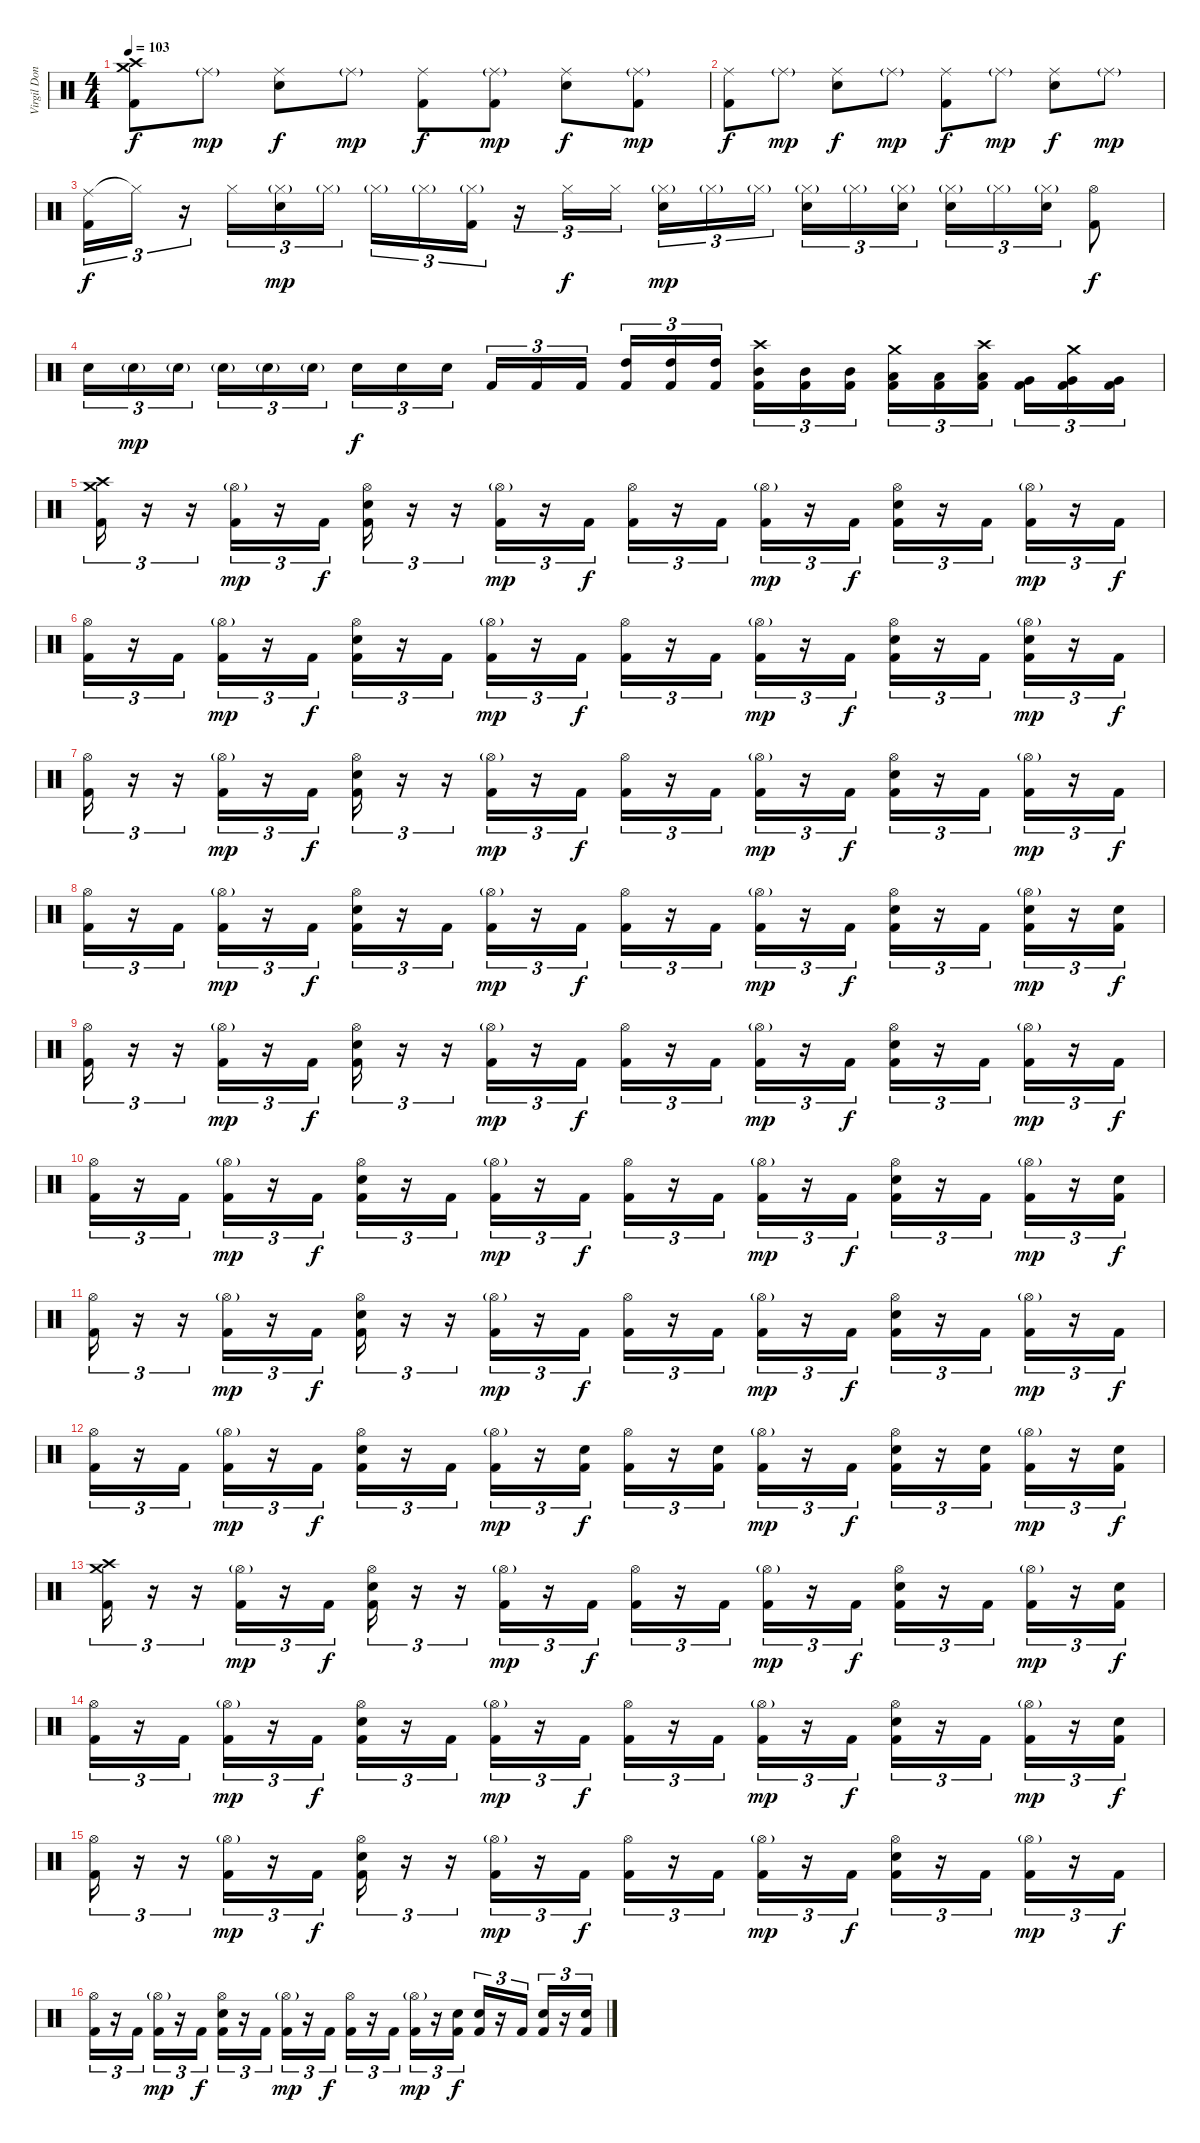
\track ("Virgil Donati" "Virgil Don") {instrument percussion}
\staff {score}
\articulation defaults
\ts (4 4)
\tempo 103
\clef neutral
\ks c
("Crash medium (hit)" "Crash high (hit)" "Kick (hit) 2").8{dy f} "Ride (middle)"{g}.8{dy mp} ("Ride (middle)" "Snare (hit) 2").8{dy f} "Ride (middle)"{g}.8{dy mp} ("Ride (middle)" "Kick (hit) 2").8{dy f} ("Ride (middle)"{g} "Kick (hit) 2").8{dy mp} ("Ride (middle)" "Snare (hit) 2").8{dy f} ("Ride (middle)"{g} "Kick (hit) 2").8{dy mp} |
("Ride (middle)" "Kick (hit) 2").8{dy f} "Ride (middle)"{g}.8{dy mp} ("Ride (middle)" "Snare (hit) 2").8{dy f} "Ride (middle)"{g}.8{dy mp} ("Ride (middle)" "Kick (hit) 2").8{dy f} "Ride (middle)"{g}.8{dy mp} ("Ride (middle)" "Snare (hit) 2").8{dy f} "Ride (middle)"{g}.8{dy mp} |
("Ride (middle)" "Kick (hit) 2").16{tu (3 2) dy f} "Hi-Hat (closed)"{t}.16{tu (3 2)} r.16{tu (3 2)} "Hi-Hat (closed)".16{tu (3 2)} ("Hi-Hat (closed)"{g} "Snare (hit) 2").16{tu (3 2) dy mp} "Hi-Hat (closed)"{g}.16{tu (3 2)} "Hi-Hat (closed)"{g}.16{tu (3 2)} "Hi-Hat (closed)"{g}.16{tu (3 2)} ("Hi-Hat (closed)"{g} "Kick (hit) 2").16{tu (3 2)} r.16{tu (3 2)} "Hi-Hat (closed)".16{tu (3 2) dy f} "Hi-Hat (closed)".16{tu (3 2)} ("Hi-Hat (closed)"{g} "Snare (hit) 2").16{tu (3 2) dy mp} "Hi-Hat (closed)"{g}.16{tu (3 2)} "Hi-Hat (closed)"{g}.16{tu (3 2)} ("Hi-Hat (closed)"{g} "Snare (hit) 2").16{tu (3 2)} "Hi-Hat (closed)"{g}.16{tu (3 2)} ("Hi-Hat (closed)"{g} "Snare (hit) 2").16{tu (3 2)} ("Hi-Hat (closed)"{g} "Snare (hit) 2").16{tu (3 2)} "Hi-Hat (closed)"{g}.16{tu (3 2)} ("Hi-Hat (closed)"{g} "Snare (hit) 2").16{tu (3 2)} ("Hi-Hat (open)" "Kick (hit) 2").8{dy f} |
"Snare (hit) 2".16{tu (3 2)} "Snare (hit) 2"{g}.16{tu (3 2) dy mp} "Snare (hit) 2"{g}.16{tu (3 2)} "Snare (hit) 2"{g}.16{tu (3 2)} "Snare (hit) 2"{g}.16{tu (3 2)} "Snare (hit) 2"{g}.16{tu (3 2)} "Snare (hit) 2".16{tu (3 2) dy f} "Snare (hit) 2".16{tu (3 2)} "Snare (hit) 2".16{tu (3 2)} "Kick (hit) 2".16{tu (3 2)} "Kick (hit) 2".16{tu (3 2)} "Kick (hit) 2".16{tu (3 2)} ("High Tom (hit)" "Kick (hit) 2").16{tu (3 2)} ("High Tom (hit)" "Kick (hit) 2").16{tu (3 2)} ("High Tom (hit)" "Kick (hit) 2").16{tu (3 2)} ("Crash high (hit)" "Mid Tom (hit)" "Kick (hit) 2").16{tu (3 2)} ("Mid Tom (hit)" "Kick (hit) 2").16{tu (3 2)} ("Mid Tom (hit)" "Kick (hit) 2").16{tu (3 2)} ("Crash medium (hit)" "Low Tom (hit)" "Kick (hit) 2").16{tu (3 2)} ("Low Tom (hit)" "Kick (hit) 2").16{tu (3 2)} ("Crash high (hit)" "Low Tom (hit)" "Kick (hit) 2").16{tu (3 2)} ("Very Low Tom (hit)" "Kick (hit) 2").16{tu (3 2)} ("Crash medium (hit)" "Very Low Tom (hit)" "Kick (hit) 2").16{tu (3 2)} ("Very Low Tom (hit)" "Kick (hit) 2").16{tu (3 2)} |
("Crash medium (hit)" "Crash high (hit)" "Kick (hit) 2").16{tu (3 2)} r.16{tu (3 2)} r.16{tu (3 2)} ("Hi-Hat (open)"{g} "Kick (hit) 2").16{tu (3 2) dy mp} r.16{tu (3 2)} "Kick (hit) 2".16{tu (3 2) dy f} ("Hi-Hat (open)" "Snare (hit) 2" "Kick (hit) 2").16{tu (3 2)} r.16{tu (3 2)} r.16{tu (3 2)} ("Hi-Hat (open)"{g} "Kick (hit) 2").16{tu (3 2) dy mp} r.16{tu (3 2)} "Kick (hit) 2".16{tu (3 2) dy f} ("Hi-Hat (open)" "Kick (hit) 2").16{tu (3 2)} r.16{tu (3 2)} "Kick (hit) 2".16{tu (3 2)} ("Hi-Hat (open)"{g} "Kick (hit) 2").16{tu (3 2) dy mp} r.16{tu (3 2)} "Kick (hit) 2".16{tu (3 2) dy f} ("Hi-Hat (open)" "Snare (hit) 2" "Kick (hit) 2").16{tu (3 2)} r.16{tu (3 2)} "Kick (hit) 2".16{tu (3 2)} ("Hi-Hat (open)"{g} "Kick (hit) 2").16{tu (3 2) dy mp} r.16{tu (3 2)} "Kick (hit) 2".16{tu (3 2) dy f} |
("Hi-Hat (open)" "Kick (hit) 2").16{tu (3 2)} r.16{tu (3 2)} "Kick (hit) 2".16{tu (3 2)} ("Hi-Hat (open)"{g} "Kick (hit) 2").16{tu (3 2) dy mp} r.16{tu (3 2)} "Kick (hit) 2".16{tu (3 2) dy f} ("Hi-Hat (open)" "Snare (hit) 2" "Kick (hit) 2").16{tu (3 2)} r.16{tu (3 2)} "Kick (hit) 2".16{tu (3 2)} ("Hi-Hat (open)"{g} "Kick (hit) 2").16{tu (3 2) dy mp} r.16{tu (3 2)} "Kick (hit) 2".16{tu (3 2) dy f} ("Hi-Hat (open)" "Kick (hit) 2").16{tu (3 2)} r.16{tu (3 2)} "Kick (hit) 2".16{tu (3 2)} ("Hi-Hat (open)"{g} "Kick (hit) 2").16{tu (3 2) dy mp} r.16{tu (3 2)} "Kick (hit) 2".16{tu (3 2) dy f} ("Hi-Hat (open)" "Snare (hit) 2" "Kick (hit) 2").16{tu (3 2)} r.16{tu (3 2)} "Kick (hit) 2".16{tu (3 2)} ("Hi-Hat (open)"{g} "Snare (hit) 2" "Kick (hit) 2").16{tu (3 2) dy mp} r.16{tu (3 2)} "Kick (hit) 2".16{tu (3 2) dy f} |
("Hi-Hat (open)" "Kick (hit) 2").16{tu (3 2)} r.16{tu (3 2)} r.16{tu (3 2)} ("Hi-Hat (open)"{g} "Kick (hit) 2").16{tu (3 2) dy mp} r.16{tu (3 2)} "Kick (hit) 2".16{tu (3 2) dy f} ("Hi-Hat (open)" "Snare (hit) 2" "Kick (hit) 2").16{tu (3 2)} r.16{tu (3 2)} r.16{tu (3 2)} ("Hi-Hat (open)"{g} "Kick (hit) 2").16{tu (3 2) dy mp} r.16{tu (3 2)} "Kick (hit) 2".16{tu (3 2) dy f} ("Hi-Hat (open)" "Kick (hit) 2").16{tu (3 2)} r.16{tu (3 2)} "Kick (hit) 2".16{tu (3 2)} ("Hi-Hat (open)"{g} "Kick (hit) 2").16{tu (3 2) dy mp} r.16{tu (3 2)} "Kick (hit) 2".16{tu (3 2) dy f} ("Hi-Hat (open)" "Snare (hit) 2" "Kick (hit) 2").16{tu (3 2)} r.16{tu (3 2)} "Kick (hit) 2".16{tu (3 2)} ("Hi-Hat (open)"{g} "Kick (hit) 2").16{tu (3 2) dy mp} r.16{tu (3 2)} "Kick (hit) 2".16{tu (3 2) dy f} |
("Hi-Hat (open)" "Kick (hit) 2").16{tu (3 2)} r.16{tu (3 2)} "Kick (hit) 2".16{tu (3 2)} ("Hi-Hat (open)"{g} "Kick (hit) 2").16{tu (3 2) dy mp} r.16{tu (3 2)} "Kick (hit) 2".16{tu (3 2) dy f} ("Hi-Hat (open)" "Snare (hit) 2" "Kick (hit) 2").16{tu (3 2)} r.16{tu (3 2)} "Kick (hit) 2".16{tu (3 2)} ("Hi-Hat (open)"{g} "Kick (hit) 2").16{tu (3 2) dy mp} r.16{tu (3 2)} "Kick (hit) 2".16{tu (3 2) dy f} ("Hi-Hat (open)" "Kick (hit) 2").16{tu (3 2)} r.16{tu (3 2)} "Kick (hit) 2".16{tu (3 2)} ("Hi-Hat (open)"{g} "Kick (hit) 2").16{tu (3 2) dy mp} r.16{tu (3 2)} "Kick (hit) 2".16{tu (3 2) dy f} ("Hi-Hat (open)" "Snare (hit) 2" "Kick (hit) 2").16{tu (3 2)} r.16{tu (3 2)} "Kick (hit) 2".16{tu (3 2)} ("Hi-Hat (open)"{g} "Snare (hit) 2" "Kick (hit) 2").16{tu (3 2) dy mp} r.16{tu (3 2)} ("Snare (hit) 2" "Kick (hit) 2").16{tu (3 2) dy f} |
("Hi-Hat (open)" "Kick (hit) 2").16{tu (3 2)} r.16{tu (3 2)} r.16{tu (3 2)} ("Hi-Hat (open)"{g} "Kick (hit) 2").16{tu (3 2) dy mp} r.16{tu (3 2)} "Kick (hit) 2".16{tu (3 2) dy f} ("Hi-Hat (open)" "Snare (hit) 2" "Kick (hit) 2").16{tu (3 2)} r.16{tu (3 2)} r.16{tu (3 2)} ("Hi-Hat (open)"{g} "Kick (hit) 2").16{tu (3 2) dy mp} r.16{tu (3 2)} "Kick (hit) 2".16{tu (3 2) dy f} ("Hi-Hat (open)" "Kick (hit) 2").16{tu (3 2)} r.16{tu (3 2)} "Kick (hit) 2".16{tu (3 2)} ("Hi-Hat (open)"{g} "Kick (hit) 2").16{tu (3 2) dy mp} r.16{tu (3 2)} "Kick (hit) 2".16{tu (3 2) dy f} ("Hi-Hat (open)" "Snare (hit) 2" "Kick (hit) 2").16{tu (3 2)} r.16{tu (3 2)} "Kick (hit) 2".16{tu (3 2)} ("Hi-Hat (open)"{g} "Kick (hit) 2").16{tu (3 2) dy mp} r.16{tu (3 2)} "Kick (hit) 2".16{tu (3 2) dy f} |
("Hi-Hat (open)" "Kick (hit) 2").16{tu (3 2)} r.16{tu (3 2)} "Kick (hit) 2".16{tu (3 2)} ("Hi-Hat (open)"{g} "Kick (hit) 2").16{tu (3 2) dy mp} r.16{tu (3 2)} "Kick (hit) 2".16{tu (3 2) dy f} ("Hi-Hat (open)" "Snare (hit) 2" "Kick (hit) 2").16{tu (3 2)} r.16{tu (3 2)} "Kick (hit) 2".16{tu (3 2)} ("Hi-Hat (open)"{g} "Kick (hit) 2").16{tu (3 2) dy mp} r.16{tu (3 2)} "Kick (hit) 2".16{tu (3 2) dy f} ("Hi-Hat (open)" "Kick (hit) 2").16{tu (3 2)} r.16{tu (3 2)} "Kick (hit) 2".16{tu (3 2)} ("Hi-Hat (open)"{g} "Kick (hit) 2").16{tu (3 2) dy mp} r.16{tu (3 2)} "Kick (hit) 2".16{tu (3 2) dy f} ("Hi-Hat (open)" "Snare (hit) 2" "Kick (hit) 2").16{tu (3 2)} r.16{tu (3 2)} "Kick (hit) 2".16{tu (3 2)} ("Hi-Hat (open)"{g} "Kick (hit) 2").16{tu (3 2) dy mp} r.16{tu (3 2)} ("Snare (hit) 2" "Kick (hit) 2").16{tu (3 2) dy f} |
("Hi-Hat (open)" "Kick (hit) 2").16{tu (3 2)} r.16{tu (3 2)} r.16{tu (3 2)} ("Hi-Hat (open)"{g} "Kick (hit) 2").16{tu (3 2) dy mp} r.16{tu (3 2)} "Kick (hit) 2".16{tu (3 2) dy f} ("Hi-Hat (open)" "Snare (hit) 2" "Kick (hit) 2").16{tu (3 2)} r.16{tu (3 2)} r.16{tu (3 2)} ("Hi-Hat (open)"{g} "Kick (hit) 2").16{tu (3 2) dy mp} r.16{tu (3 2)} "Kick (hit) 2".16{tu (3 2) dy f} ("Hi-Hat (open)" "Kick (hit) 2").16{tu (3 2)} r.16{tu (3 2)} "Kick (hit) 2".16{tu (3 2)} ("Hi-Hat (open)"{g} "Kick (hit) 2").16{tu (3 2) dy mp} r.16{tu (3 2)} "Kick (hit) 2".16{tu (3 2) dy f} ("Hi-Hat (open)" "Snare (hit) 2" "Kick (hit) 2").16{tu (3 2)} r.16{tu (3 2)} "Kick (hit) 2".16{tu (3 2)} ("Hi-Hat (open)"{g} "Kick (hit) 2").16{tu (3 2) dy mp} r.16{tu (3 2)} "Kick (hit) 2".16{tu (3 2) dy f} |
("Hi-Hat (open)" "Kick (hit) 2").16{tu (3 2)} r.16{tu (3 2)} "Kick (hit) 2".16{tu (3 2)} ("Hi-Hat (open)"{g} "Kick (hit) 2").16{tu (3 2) dy mp} r.16{tu (3 2)} "Kick (hit) 2".16{tu (3 2) dy f} ("Hi-Hat (open)" "Snare (hit) 2" "Kick (hit) 2").16{tu (3 2)} r.16{tu (3 2)} "Kick (hit) 2".16{tu (3 2)} ("Hi-Hat (open)"{g} "Kick (hit) 2").16{tu (3 2) dy mp} r.16{tu (3 2)} ("Snare (hit) 2" "Kick (hit) 2").16{tu (3 2) dy f} ("Hi-Hat (open)" "Kick (hit) 2").16{tu (3 2)} r.16{tu (3 2)} ("Snare (hit) 2" "Kick (hit) 2").16{tu (3 2)} ("Hi-Hat (open)"{g} "Kick (hit) 2").16{tu (3 2) dy mp} r.16{tu (3 2)} "Kick (hit) 2".16{tu (3 2) dy f} ("Hi-Hat (open)" "Snare (hit) 2" "Kick (hit) 2").16{tu (3 2)} r.16{tu (3 2)} ("Snare (hit) 2" "Kick (hit) 2").16{tu (3 2)} ("Hi-Hat (open)"{g} "Kick (hit) 2").16{tu (3 2) dy mp} r.16{tu (3 2)} ("Snare (hit) 2" "Kick (hit) 2").16{tu (3 2) dy f} |
("Crash medium (hit)" "Crash high (hit)" "Kick (hit) 2").16{tu (3 2)} r.16{tu (3 2)} r.16{tu (3 2)} ("Hi-Hat (open)"{g} "Kick (hit) 2").16{tu (3 2) dy mp} r.16{tu (3 2)} "Kick (hit) 2".16{tu (3 2) dy f} ("Hi-Hat (open)" "Snare (hit) 2" "Kick (hit) 2").16{tu (3 2)} r.16{tu (3 2)} r.16{tu (3 2)} ("Hi-Hat (open)"{g} "Kick (hit) 2").16{tu (3 2) dy mp} r.16{tu (3 2)} "Kick (hit) 2".16{tu (3 2) dy f} ("Hi-Hat (open)" "Kick (hit) 2").16{tu (3 2)} r.16{tu (3 2)} "Kick (hit) 2".16{tu (3 2)} ("Hi-Hat (open)"{g} "Kick (hit) 2").16{tu (3 2) dy mp} r.16{tu (3 2)} "Kick (hit) 2".16{tu (3 2) dy f} ("Hi-Hat (open)" "Snare (hit) 2" "Kick (hit) 2").16{tu (3 2)} r.16{tu (3 2)} "Kick (hit) 2".16{tu (3 2)} ("Hi-Hat (open)"{g} "Kick (hit) 2").16{tu (3 2) dy mp} r.16{tu (3 2)} ("Snare (hit) 2" "Kick (hit) 2").16{tu (3 2) dy f} |
("Hi-Hat (open)" "Kick (hit) 2").16{tu (3 2)} r.16{tu (3 2)} "Kick (hit) 2".16{tu (3 2)} ("Hi-Hat (open)"{g} "Kick (hit) 2").16{tu (3 2) dy mp} r.16{tu (3 2)} "Kick (hit) 2".16{tu (3 2) dy f} ("Hi-Hat (open)" "Snare (hit) 2" "Kick (hit) 2").16{tu (3 2)} r.16{tu (3 2)} "Kick (hit) 2".16{tu (3 2)} ("Hi-Hat (open)"{g} "Kick (hit) 2").16{tu (3 2) dy mp} r.16{tu (3 2)} "Kick (hit) 2".16{tu (3 2) dy f} ("Hi-Hat (open)" "Kick (hit) 2").16{tu (3 2)} r.16{tu (3 2)} "Kick (hit) 2".16{tu (3 2)} ("Hi-Hat (open)"{g} "Kick (hit) 2").16{tu (3 2) dy mp} r.16{tu (3 2)} "Kick (hit) 2".16{tu (3 2) dy f} ("Hi-Hat (open)" "Snare (hit) 2" "Kick (hit) 2").16{tu (3 2)} r.16{tu (3 2)} "Kick (hit) 2".16{tu (3 2)} ("Hi-Hat (open)"{g} "Kick (hit) 2").16{tu (3 2) dy mp} r.16{tu (3 2)} ("Snare (hit) 2" "Kick (hit) 2").16{tu (3 2) dy f} |
("Hi-Hat (open)" "Kick (hit) 2").16{tu (3 2)} r.16{tu (3 2)} r.16{tu (3 2)} ("Hi-Hat (open)"{g} "Kick (hit) 2").16{tu (3 2) dy mp} r.16{tu (3 2)} "Kick (hit) 2".16{tu (3 2) dy f} ("Hi-Hat (open)" "Snare (hit) 2" "Kick (hit) 2").16{tu (3 2)} r.16{tu (3 2)} r.16{tu (3 2)} ("Hi-Hat (open)"{g} "Kick (hit) 2").16{tu (3 2) dy mp} r.16{tu (3 2)} "Kick (hit) 2".16{tu (3 2) dy f} ("Hi-Hat (open)" "Kick (hit) 2").16{tu (3 2)} r.16{tu (3 2)} "Kick (hit) 2".16{tu (3 2)} ("Hi-Hat (open)"{g} "Kick (hit) 2").16{tu (3 2) dy mp} r.16{tu (3 2)} "Kick (hit) 2".16{tu (3 2) dy f} ("Hi-Hat (open)" "Snare (hit) 2" "Kick (hit) 2").16{tu (3 2)} r.16{tu (3 2)} "Kick (hit) 2".16{tu (3 2)} ("Hi-Hat (open)"{g} "Kick (hit) 2").16{tu (3 2) dy mp} r.16{tu (3 2)} "Kick (hit) 2".16{tu (3 2) dy f} |
("Hi-Hat (open)" "Kick (hit) 2").16{tu (3 2)} r.16{tu (3 2)} "Kick (hit) 2".16{tu (3 2)} ("Hi-Hat (open)"{g} "Kick (hit) 2").16{tu (3 2) dy mp} r.16{tu (3 2)} "Kick (hit) 2".16{tu (3 2) dy f} ("Hi-Hat (open)" "Snare (hit) 2" "Kick (hit) 2").16{tu (3 2)} r.16{tu (3 2)} "Kick (hit) 2".16{tu (3 2)} ("Hi-Hat (open)"{g} "Kick (hit) 2").16{tu (3 2) dy mp} r.16{tu (3 2)} "Kick (hit) 2".16{tu (3 2) dy f} ("Hi-Hat (open)" "Kick (hit) 2").16{tu (3 2)} r.16{tu (3 2)} "Kick (hit) 2".16{tu (3 2)} ("Hi-Hat (open)"{g} "Kick (hit) 2").16{tu (3 2) dy mp} r.16{tu (3 2)} ("Snare (hit) 2" "Kick (hit) 2").16{tu (3 2) dy f} ("Snare (hit) 2" "Kick (hit) 2").16{tu (3 2)} r.16{tu (3 2)} "Kick (hit) 2".16{tu (3 2)} ("Snare (hit) 2" "Kick (hit) 2").16{tu (3 2)} r.16{tu (3 2)} ("Snare (hit) 2" "Kick (hit) 2").16{tu (3 2)}
